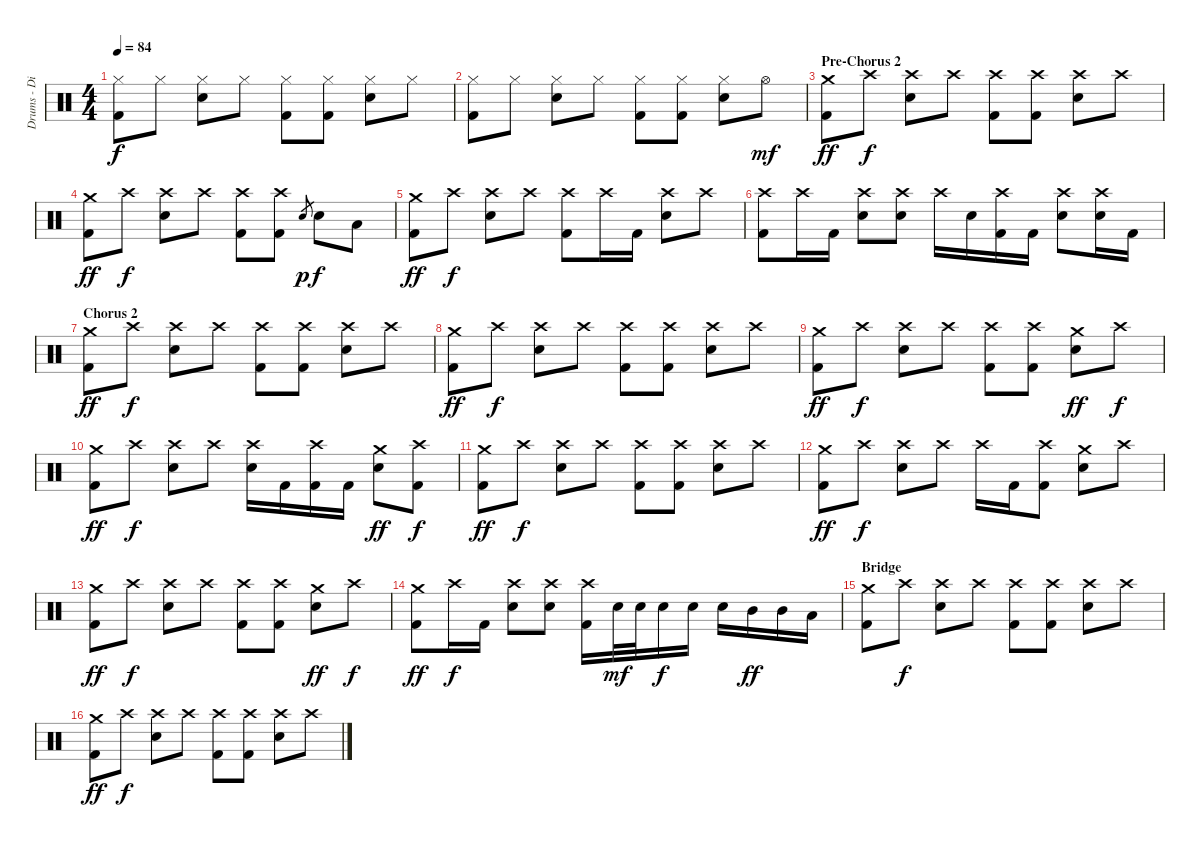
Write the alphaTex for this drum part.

\track ("Drums - Dino Campanella" "Drums - Di") {instrument percussion}
\staff {score}
\articulation defaults
\ts (4 4)
\tempo 84
\clef neutral
\ks c
("Hi-Hat (closed)" "Kick (hit) 2").8{dy f} "Hi-Hat (closed)".8 ("Hi-Hat (closed)" "Electric Snare (hit)").8 "Hi-Hat (closed)".8 ("Hi-Hat (closed)" "Kick (hit) 2").8 ("Hi-Hat (closed)" "Kick (hit) 2").8 ("Hi-Hat (closed)" "Electric Snare (hit)").8 "Hi-Hat (closed)".8 |
("Hi-Hat (closed)" "Kick (hit) 2").8 "Hi-Hat (closed)".8 ("Hi-Hat (closed)" "Electric Snare (hit)").8 "Hi-Hat (closed)".8 ("Hi-Hat (closed)" "Kick (hit) 2").8 ("Hi-Hat (closed)" "Kick (hit) 2").8 ("Hi-Hat (closed)" "Electric Snare (hit)").8 "Hi-Hat (open)".8{dy mf} |
\section ("" "Pre-Chorus 2")
("Crash medium (hit)" "Kick (hit) 2").8{dy ff} "Crash high (hit)".8{dy f} ("Crash high (hit)" "Electric Snare (hit)").8 "Crash high (hit)".8 ("Crash high (hit)" "Kick (hit) 2").8 ("Crash high (hit)" "Kick (hit) 2").8 ("Crash high (hit)" "Electric Snare (hit)").8 "Crash high (hit)".8 |
("Crash medium (hit)" "Kick (hit) 2").8{dy ff} "Crash high (hit)".8{dy f} ("Crash high (hit)" "Electric Snare (hit)").8 "Crash high (hit)".8 ("Crash high (hit)" "Kick (hit) 2").8 ("Crash high (hit)" "Kick (hit) 2").8 "Electric Snare (hit)".8{gr dy p} "Electric Snare (hit)".8{dy f} "Low Tom (hit)".8 |
("Crash medium (hit)" "Kick (hit) 2").8{dy ff} "Crash high (hit)".8{dy f} ("Crash high (hit)" "Electric Snare (hit)").8 "Crash high (hit)".8 ("Crash high (hit)" "Kick (hit) 2").8 "Crash high (hit)".16 "Kick (hit) 2".16 ("Crash high (hit)" "Electric Snare (hit)").8 "Crash high (hit)".8 |
("Crash high (hit)" "Kick (hit) 2").8 "Crash high (hit)".16 "Kick (hit) 2".16 ("Crash high (hit)" "Electric Snare (hit)").8 ("Crash high (hit)" "Electric Snare (hit)").8 "Crash high (hit)".16 "Electric Snare (hit)".16 ("Crash high (hit)" "Kick (hit) 2").16 "Kick (hit) 2".16 ("Crash high (hit)" "Electric Snare (hit)").8 ("Crash high (hit)" "Electric Snare (hit)").16 "Kick (hit) 2".16 |
\section ("" "Chorus 2")
("Crash medium (hit)" "Kick (hit) 2").8{dy ff} "Crash high (hit)".8{dy f} ("Crash high (hit)" "Electric Snare (hit)").8 "Crash high (hit)".8 ("Crash high (hit)" "Kick (hit) 2").8 ("Crash high (hit)" "Kick (hit) 2").8 ("Crash high (hit)" "Electric Snare (hit)").8 "Crash high (hit)".8 |
("Crash medium (hit)" "Kick (hit) 2").8{dy ff} "Crash high (hit)".8{dy f} ("Crash high (hit)" "Electric Snare (hit)").8 "Crash high (hit)".8 ("Crash high (hit)" "Kick (hit) 2").8 ("Crash high (hit)" "Kick (hit) 2").8 ("Crash high (hit)" "Electric Snare (hit)").8 "Crash high (hit)".8 |
("Crash medium (hit)" "Kick (hit) 2").8{dy ff} "Crash high (hit)".8{dy f} ("Crash high (hit)" "Electric Snare (hit)").8 "Crash high (hit)".8 ("Crash high (hit)" "Kick (hit) 2").8 ("Crash high (hit)" "Kick (hit) 2").8 ("Crash medium (hit)" "Electric Snare (hit)").8{dy ff} "Crash high (hit)".8{dy f} |
("Crash medium (hit)" "Kick (hit) 2").8{dy ff} "Crash high (hit)".8{dy f} ("Crash high (hit)" "Electric Snare (hit)").8 "Crash high (hit)".8 ("Crash high (hit)" "Electric Snare (hit)").16 "Kick (hit) 2".16 ("Crash high (hit)" "Kick (hit) 2").16 "Kick (hit) 2".16 ("Crash medium (hit)" "Electric Snare (hit)").8{dy ff} ("Crash high (hit)" "Kick (hit) 2").8{dy f} |
("Crash medium (hit)" "Kick (hit) 2").8{dy ff} "Crash high (hit)".8{dy f} ("Crash high (hit)" "Electric Snare (hit)").8 "Crash high (hit)".8 ("Crash high (hit)" "Kick (hit) 2").8 ("Crash high (hit)" "Kick (hit) 2").8 ("Crash high (hit)" "Electric Snare (hit)").8 "Crash high (hit)".8 |
("Crash medium (hit)" "Kick (hit) 2").8{dy ff} "Crash high (hit)".8{dy f} ("Crash high (hit)" "Electric Snare (hit)").8 "Crash high (hit)".8 "Crash high (hit)".16 "Kick (hit) 2".16 ("Crash high (hit)" "Kick (hit) 2").8 ("Crash medium (hit)" "Electric Snare (hit)").8 "Crash high (hit)".8 |
("Crash medium (hit)" "Kick (hit) 2").8{dy ff} "Crash high (hit)".8{dy f} ("Crash high (hit)" "Electric Snare (hit)").8 "Crash high (hit)".8 ("Crash high (hit)" "Kick (hit) 2").8 ("Crash high (hit)" "Kick (hit) 2").8 ("Crash medium (hit)" "Electric Snare (hit)").8{dy ff} "Crash high (hit)".8{dy f} |
("Crash medium (hit)" "Kick (hit) 2").8{dy ff} "Crash high (hit)".16{dy f} "Kick (hit) 2".16 ("Crash high (hit)" "Electric Snare (hit)").8 ("Crash high (hit)" "Electric Snare (hit)").8 ("Crash high (hit)" "Kick (hit) 2").16 "Electric Snare (hit)".32{dy mf} "Electric Snare (hit)".32 "Electric Snare (hit)".16{dy f} "Electric Snare (hit)".16 "Electric Snare (hit)".16 "Mid Tom (hit)".16{dy ff} "Mid Tom (hit)".16 "Low Tom (hit)".16 |
\section ("" "Bridge")
("Crash medium (hit)" "Kick (hit) 2").8 "Crash high (hit)".8{dy f} ("Crash high (hit)" "Electric Snare (hit)").8 "Crash high (hit)".8 ("Crash high (hit)" "Kick (hit) 2").8 ("Crash high (hit)" "Kick (hit) 2").8 ("Crash high (hit)" "Electric Snare (hit)").8 "Crash high (hit)".8 |
("Crash medium (hit)" "Kick (hit) 2").8{dy ff} "Crash high (hit)".8{dy f} ("Crash high (hit)" "Electric Snare (hit)").8 "Crash high (hit)".8 ("Crash high (hit)" "Kick (hit) 2").8 ("Crash high (hit)" "Kick (hit) 2").8 ("Crash high (hit)" "Electric Snare (hit)").8 "Crash high (hit)".8
